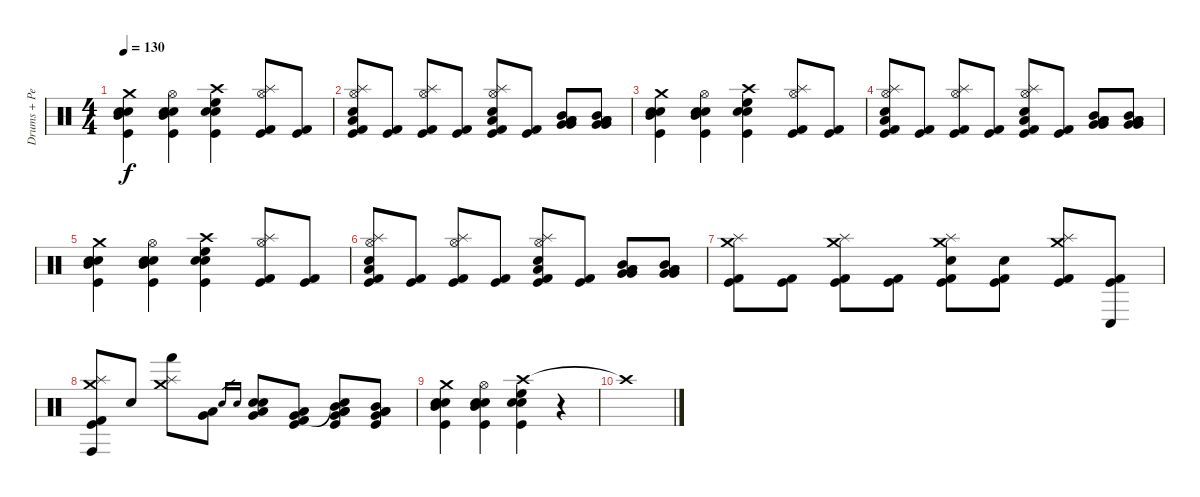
\track ("Drums + Percussions (Dave Chavarri)" "Drums + Pe") {instrument percussion}
\staff {score}
\articulation defaults
\ts (4 4)
\tempo 130
\clef neutral
\ks c
("Crash medium (hit)" "Snare (hit) 2" "Electric Snare (hit)" "Mid Tom (hit)" "Kick (hit)").4{dy f} ("Hi-Hat (open)" "Snare (hit) 2" "Electric Snare (hit)" "Mid Tom (hit)" "Kick (hit)").4 ("Crash high (hit)" "Snare (hit) 2" "Electric Snare (hit)" "High Floor Tom (hit)" "Kick (hit)").4 ("Hi-Hat (open)" "Splash (hit)" "Kick (hit) 2" "Kick (hit)").8 ("Kick (hit) 2" "Kick (hit)").8 |
("Hi-Hat (open)" "Splash (hit)" "Low Floor Tom (hit)" "Electric Snare (hit)" "Kick (hit) 2" "Kick (hit)").8 ("Kick (hit) 2" "Kick (hit)").8 ("Hi-Hat (open)" "Splash (hit)" "Kick (hit) 2" "Kick (hit)").8 ("Kick (hit) 2" "Kick (hit)").8 ("Hi-Hat (open)" "Splash (hit)" "Low Floor Tom (hit)" "Electric Snare (hit)" "Kick (hit) 2" "Kick (hit)").8 ("Kick (hit) 2" "Kick (hit)").8 ("Low Tom (hit)" "Mid Tom (hit)" "Low Floor Tom (hit)" "Very Low Tom (hit)" "Very Low Tom (hit)").8 ("Low Tom (hit)" "Mid Tom (hit)" "Low Floor Tom (hit)" "Very Low Tom (hit)" "Very Low Tom (hit)").8 |
("Crash medium (hit)" "Snare (hit) 2" "Electric Snare (hit)" "Mid Tom (hit)" "Kick (hit)").4 ("Hi-Hat (open)" "Snare (hit) 2" "Electric Snare (hit)" "Mid Tom (hit)" "Kick (hit)").4 ("Crash high (hit)" "Snare (hit) 2" "Electric Snare (hit)" "High Floor Tom (hit)" "Kick (hit)").4 ("Hi-Hat (open)" "Splash (hit)" "Kick (hit) 2" "Kick (hit)").8 ("Kick (hit) 2" "Kick (hit)").8 |
("Hi-Hat (open)" "Splash (hit)" "Low Floor Tom (hit)" "Electric Snare (hit)" "Kick (hit) 2" "Kick (hit)").8 ("Kick (hit) 2" "Kick (hit)").8 ("Hi-Hat (open)" "Splash (hit)" "Kick (hit) 2" "Kick (hit)").8 ("Kick (hit) 2" "Kick (hit)").8 ("Hi-Hat (open)" "Splash (hit)" "Low Floor Tom (hit)" "Electric Snare (hit)" "Kick (hit) 2" "Kick (hit)").8 ("Kick (hit) 2" "Kick (hit)").8 ("Low Tom (hit)" "Mid Tom (hit)" "Low Floor Tom (hit)" "Very Low Tom (hit)" "Very Low Tom (hit)").8 ("Low Tom (hit)" "Mid Tom (hit)" "Low Floor Tom (hit)" "Very Low Tom (hit)" "Very Low Tom (hit)").8 |
("Crash medium (hit)" "Snare (hit) 2" "Electric Snare (hit)" "Mid Tom (hit)" "Kick (hit)").4 ("Hi-Hat (open)" "Snare (hit) 2" "Electric Snare (hit)" "Mid Tom (hit)" "Kick (hit)").4 ("Crash high (hit)" "Snare (hit) 2" "Electric Snare (hit)" "High Floor Tom (hit)" "Kick (hit)").4 ("Hi-Hat (open)" "Splash (hit)" "Kick (hit) 2" "Kick (hit)").8 ("Kick (hit) 2" "Kick (hit)").8 |
("Hi-Hat (open)" "Splash (hit)" "Low Floor Tom (hit)" "Electric Snare (hit)" "Kick (hit) 2" "Kick (hit)").8 ("Kick (hit) 2" "Kick (hit)").8 ("Hi-Hat (open)" "Splash (hit)" "Kick (hit) 2" "Kick (hit)").8 ("Kick (hit) 2" "Kick (hit)").8 ("Hi-Hat (open)" "Splash (hit)" "Low Floor Tom (hit)" "Electric Snare (hit)" "Kick (hit) 2" "Kick (hit)").8 ("Kick (hit) 2" "Kick (hit)").8 ("Low Tom (hit)" "Mid Tom (hit)" "Low Floor Tom (hit)" "Very Low Tom (hit)" "Very Low Tom (hit)").8 ("Low Tom (hit)" "Mid Tom (hit)" "Low Floor Tom (hit)" "Very Low Tom (hit)" "Very Low Tom (hit)").8 |
("Crash medium (hit)" "Splash (hit)" "Kick (hit)" "Kick (hit) 2").8 ("Kick (hit)" "Kick (hit) 2").8 ("Crash medium (hit)" "Splash (hit)" "Kick (hit)" "Kick (hit) 2").8 ("Kick (hit)" "Kick (hit) 2").8 ("Crash medium (hit)" "Splash (hit)" "Electric Snare (hit)" "Kick (hit)" "Kick (hit) 2").8 ("Electric Snare (hit)" "Kick (hit)" "Kick (hit) 2").8 ("Crash medium (hit)" "Splash (hit)" "Kick (hit)" "Kick (hit) 2").8 ("Conga low (hit)" "Kick (hit)" "Kick (hit) 2").8 |
("Crash medium (hit)" "Splash (hit)" "Conga high (hit)" "Kick (hit)" "Kick (hit) 2").8 "Electric Snare (hit)".8 ("Crash medium (hit)" "Splash (hit)" "Hand (hit)").8 ("Low Floor Tom (hit)" "Very Low Tom (hit)").8 "Snare (hit) 2".16{gr} "Electric Snare (hit)".16{gr} ("Snare (hit) 2" "Electric Snare (hit)" "Low Floor Tom (hit)" "Very Low Tom (hit)").8 ("Kick (hit) 2" "Kick (hit)" "Low Floor Tom (hit)" "Very Low Tom (hit)").8 ("Snare (hit)"{t} "Mid Tom (hit)" "Low Tom (hit)" "Kick (hit)" "Low Floor Tom (hit)" "Very Low Tom (hit)").8 ("Mid Tom (hit)" "Low Tom (hit)" "Kick (hit)" "Low Floor Tom (hit)" "Very Low Tom (hit)").8 |
("Crash medium (hit)" "Snare (hit) 2" "Electric Snare (hit)" "Mid Tom (hit)" "Kick (hit)").4 ("Hi-Hat (open)" "Snare (hit) 2" "Electric Snare (hit)" "Mid Tom (hit)" "Kick (hit)").4 ("Crash high (hit)" "Snare (hit) 2" "Electric Snare (hit)" "High Floor Tom (hit)" "Kick (hit)").4 r.4 |
"Crash high (hit)"{t}.1
